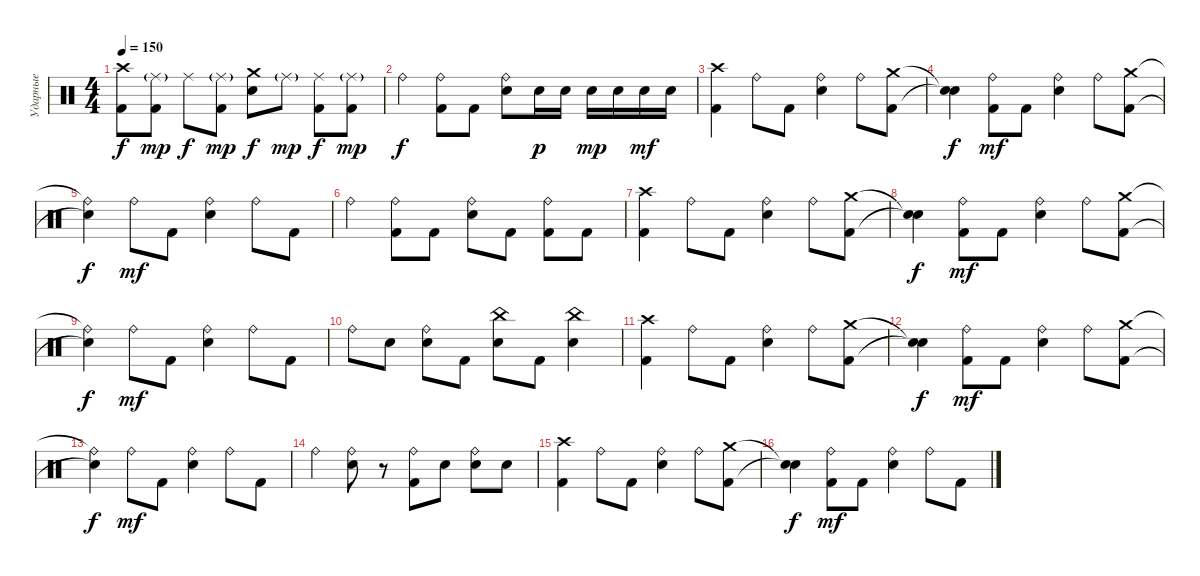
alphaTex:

\track ("Ударные" "Ударные") {instrument percussion}
\staff {score}
\articulation defaults
\ts (4 4)
\tempo 150
\clef neutral
\ks c
("Crash high (hit)" "Kick (hit) 2").8{dy f} ("Ride (middle)"{g} "Kick (hit) 2").8{dy mp} "Ride (middle)".8{dy f} ("Ride (middle)"{g} "Kick (hit) 2").8{dy mp} ("Crash medium (hit)" "Snare (hit) 2").8{dy f} "Ride (middle)"{g}.8{dy mp} ("Ride (middle)" "Kick (hit) 2").8{dy f} ("Ride (middle)"{g} "Kick (hit) 2").8{dy mp} |
"Ride (bell)".4{dy f} ("Ride (bell)" "Kick (hit) 2").8 "Kick (hit) 2".8 ("Ride (bell)" "Snare (hit) 2").8 "Snare (hit) 2".16{dy p} "Snare (hit) 2".16 "Snare (hit) 2".16{dy mp} "Snare (hit) 2".16 "Snare (hit) 2".16{dy mf} "Snare (hit) 2".16 |
("Crash high (hit)" "Kick (hit) 2").4 "Ride (bell)".8 "Kick (hit) 2".8 ("Ride (bell)" "Snare (hit) 2").4 "Ride (bell)".8 ("Crash medium (hit)" "Kick (hit) 2").8 |
("Snare (hit)"{t} "Snare (hit)"{t}).4{dy f} ("Ride (bell)" "Kick (hit) 2").8{dy mf} "Kick (hit) 2".8 ("Ride (bell)" "Snare (hit) 2").4 "Ride (bell)".8 ("Crash medium (hit)" "Kick (hit) 2").8 |
("Ride (bell)"{t} "Snare (hit)"{t}).4{dy f} "Ride (bell)".8{dy mf} "Kick (hit) 2".8 ("Ride (bell)" "Snare (hit) 2").4 "Ride (bell)".8 "Kick (hit) 2".8 |
"Ride (bell)".4 ("Ride (bell)" "Kick (hit) 2").8 "Kick (hit) 2".8 ("Ride (bell)" "Snare (hit) 2").8 "Kick (hit) 2".8 ("Ride (bell)" "Kick (hit) 2").8 "Kick (hit) 2".8 |
("Crash high (hit)" "Kick (hit) 2").4 "Ride (bell)".8 "Kick (hit) 2".8 ("Ride (bell)" "Snare (hit) 2").4 "Ride (bell)".8 ("Crash medium (hit)" "Kick (hit) 2").8 |
("Snare (hit)"{t} "Snare (hit)"{t}).4{dy f} ("Ride (bell)" "Kick (hit) 2").8{dy mf} "Kick (hit) 2".8 ("Ride (bell)" "Snare (hit) 2").4 "Ride (bell)".8 ("Crash medium (hit)" "Kick (hit) 2").8 |
("Ride (bell)"{t} "Snare (hit)"{t}).4{dy f} "Ride (bell)".8{dy mf} "Kick (hit) 2".8 ("Ride (bell)" "Snare (hit) 2").4 "Ride (bell)".8 "Kick (hit) 2".8 |
"Ride (bell)".8 "Snare (hit) 2".8 ("Ride (bell)" "Snare (hit) 2").8 "Kick (hit) 2".8 ("China (hit)" "Snare (hit) 2").8 "Kick (hit) 2".8 ("China (hit)" "Snare (hit) 2").4 |
("Crash high (hit)" "Kick (hit) 2").4 "Ride (bell)".8 "Kick (hit) 2".8 ("Ride (bell)" "Snare (hit) 2").4 "Ride (bell)".8 ("Crash medium (hit)" "Kick (hit) 2").8 |
("Snare (hit)"{t} "Snare (hit)"{t}).4{dy f} ("Ride (bell)" "Kick (hit) 2").8{dy mf} "Kick (hit) 2".8 ("Ride (bell)" "Snare (hit) 2").4 "Ride (bell)".8 ("Crash medium (hit)" "Kick (hit) 2").8 |
("Ride (bell)"{t} "Snare (hit)"{t}).4{dy f} "Ride (bell)".8{dy mf} "Kick (hit) 2".8 ("Ride (bell)" "Snare (hit) 2").4 "Ride (bell)".8 "Kick (hit) 2".8 |
"Ride (bell)".4 ("Ride (bell)" "Snare (hit) 2").8 r.8 ("Ride (bell)" "Kick (hit) 2").8 "Snare (hit) 2".8 ("Ride (bell)" "Snare (hit) 2").8 "Snare (hit) 2".8 |
("Crash high (hit)" "Kick (hit) 2").4 "Ride (bell)".8 "Kick (hit) 2".8 ("Ride (bell)" "Snare (hit) 2").4 "Ride (bell)".8 ("Crash medium (hit)" "Kick (hit) 2").8 |
("Snare (hit)"{t} "Snare (hit)"{t}).4{dy f} ("Ride (bell)" "Kick (hit) 2").8{dy mf} "Kick (hit) 2".8 ("Ride (bell)" "Snare (hit) 2").4 "Ride (bell)".8 "Kick (hit) 2".8
